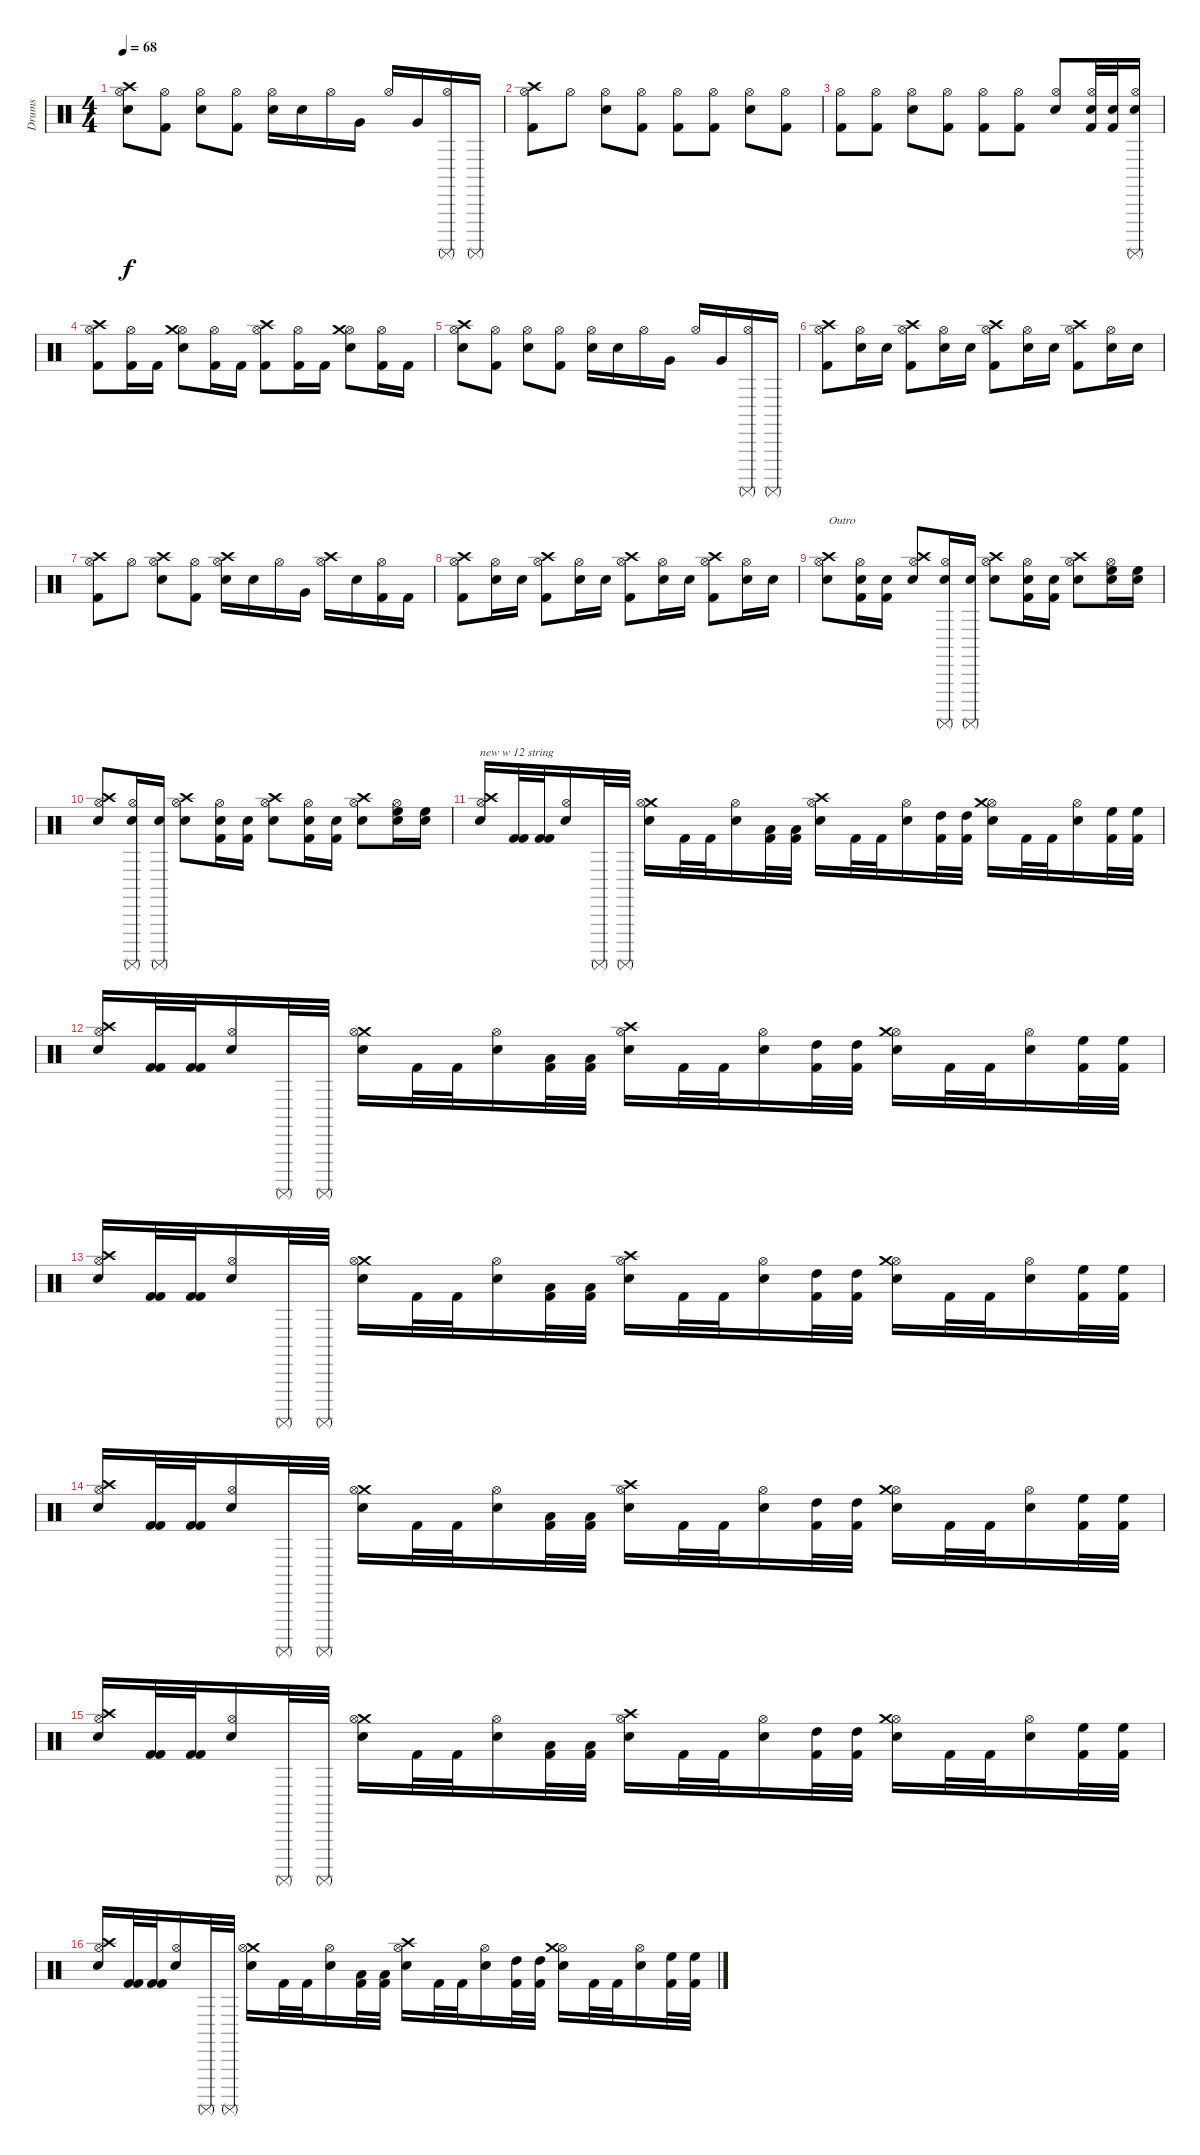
\track ("Drums" "Drums") {instrument percussion}
\staff {score}
\articulation defaults
\ts (4 4)
\tempo 68
\clef neutral
\ks c
("Snare (hit) 2" "Crash high (hit)" "Hi-Hat (open)").8{dy f} ("Kick (hit) 2" "Hi-Hat (open)").8 ("Snare (hit) 2" "Hi-Hat (open)").8 ("Kick (hit) 2" "Hi-Hat (open)").8 ("Snare (hit) 2" "Hi-Hat (open)").16 "Snare (hit) 2".16 "Hi-Hat (open)".16 "Very Low Tom (hit)".16 "Hi-Hat (open)".16 "Very Low Tom (hit)".16 ("Surdo (mute)" "Hi-Hat (open)").16 "Surdo (mute)".16 |
("Kick (hit) 2" "Hi-Hat (open)" "Crash high (hit)").8 "Hi-Hat (open)".8 ("Snare (hit) 2" "Hi-Hat (open)").8 ("Kick (hit) 2" "Hi-Hat (open)").8 ("Kick (hit) 2" "Hi-Hat (open)").8 ("Kick (hit) 2" "Hi-Hat (open)").8 ("Snare (hit) 2" "Hi-Hat (open)").8 ("Kick (hit) 2" "Hi-Hat (open)").8 |
("Kick (hit) 2" "Hi-Hat (open)").8 ("Kick (hit) 2" "Hi-Hat (open)").8 ("Snare (hit) 2" "Hi-Hat (open)").8 ("Kick (hit) 2" "Hi-Hat (open)").8 ("Kick (hit) 2" "Hi-Hat (open)").8 ("Kick (hit) 2" "Hi-Hat (open)").8 ("Snare (hit) 2" "Hi-Hat (open)").8 ("Kick (hit) 2" "Hi-Hat (open)" "Snare (hit) 2").32 ("Kick (hit) 2" "Snare (hit) 2").32 ("Surdo (mute)" "Snare (hit) 2" "Hi-Hat (open)").16 |
("Kick (hit) 2" "Crash high (hit)" "Hi-Hat (open)").8 ("Kick (hit) 2" "Hi-Hat (open)").16 "Kick (hit) 2".16 ("Snare (hit) 2" "Hi-Hat (open)" "Crash medium (hit)").8 ("Kick (hit) 2" "Hi-Hat (open)").16 "Kick (hit) 2".16 ("Kick (hit) 2" "Hi-Hat (open)" "Crash high (hit)").8 ("Kick (hit) 2" "Hi-Hat (open)").16 "Kick (hit) 2".16 ("Snare (hit) 2" "Hi-Hat (open)" "Crash medium (hit)").8 ("Kick (hit) 2" "Hi-Hat (open)").16 "Kick (hit) 2".16 |
("Snare (hit) 2" "Crash high (hit)" "Hi-Hat (open)").8 ("Kick (hit) 2" "Hi-Hat (open)").8 ("Snare (hit) 2" "Hi-Hat (open)").8 ("Kick (hit) 2" "Hi-Hat (open)").8 ("Snare (hit) 2" "Hi-Hat (open)").16 "Snare (hit) 2".16 "Hi-Hat (open)".16 "Very Low Tom (hit)".16 "Hi-Hat (open)".16 "Very Low Tom (hit)".16 ("Surdo (mute)" "Hi-Hat (open)").16 "Surdo (mute)".16 |
("Kick (hit) 2" "Crash high (hit)" "Hi-Hat (open)").8 ("Snare (hit) 2" "Hi-Hat (open)").16 "Snare (hit) 2".16 ("Kick (hit) 2" "Crash high (hit)" "Hi-Hat (open)").8 ("Snare (hit) 2" "Hi-Hat (open)").16 "Snare (hit) 2".16 ("Kick (hit) 2" "Hi-Hat (open)" "Crash high (hit)").8 ("Snare (hit) 2" "Hi-Hat (open)").16 "Snare (hit) 2".16 ("Kick (hit) 2" "Hi-Hat (open)" "Crash high (hit)").8 ("Snare (hit) 2" "Hi-Hat (open)").16 "Snare (hit) 2".16 |
("Kick (hit) 2" "Crash high (hit)" "Hi-Hat (open)").8 "Hi-Hat (open)".8 ("Snare (hit) 2" "Hi-Hat (open)" "Crash high (hit)").8 ("Kick (hit) 2" "Hi-Hat (open)").8 ("Snare (hit) 2" "Hi-Hat (open)" "Crash high (hit)").16 "Snare (hit) 2".16 "Hi-Hat (open)".16 "Very Low Tom (hit)".16 ("Hi-Hat (open)" "Crash high (hit)").16 "Snare (hit) 2".16 ("Kick (hit) 2" "Hi-Hat (open)").16 "Kick (hit) 2".16 |
("Kick (hit) 2" "Crash high (hit)" "Hi-Hat (open)").8 ("Snare (hit) 2" "Hi-Hat (open)").16 "Snare (hit) 2".16 ("Kick (hit) 2" "Crash high (hit)" "Hi-Hat (open)").8 ("Snare (hit) 2" "Hi-Hat (open)").16 "Snare (hit) 2".16 ("Kick (hit) 2" "Hi-Hat (open)" "Crash high (hit)").8 ("Snare (hit) 2" "Hi-Hat (open)").16 "Snare (hit) 2".16 ("Kick (hit) 2" "Hi-Hat (open)" "Crash high (hit)").8 ("Snare (hit) 2" "Hi-Hat (open)").16 "Snare (hit) 2".16 |
("Snare (hit) 2" "Crash high (hit)" "Hi-Hat (open)").8{txt "Outro"} ("Snare (hit) 2" "Hi-Hat (open)" "Kick (hit) 2").16 ("Snare (hit) 2" "Kick (hit) 2").16 ("Snare (hit) 2" "Crash high (hit)" "Hi-Hat (open)").8 ("Snare (hit) 2" "Hi-Hat (open)" "Surdo (mute)").16 ("Snare (hit) 2" "Surdo (mute)").16 ("Snare (hit) 2" "Hi-Hat (open)" "Crash high (hit)").8 ("Snare (hit) 2" "Hi-Hat (open)" "Kick (hit) 2").16 ("Snare (hit) 2" "Kick (hit) 2").16 ("Snare (hit) 2" "Hi-Hat (open)" "Crash high (hit)").8 ("Snare (hit) 2" "Hi-Hat (open)" "High Floor Tom (hit)").16 ("Snare (hit) 2" "High Floor Tom (hit)").16 |
("Snare (hit) 2" "Crash high (hit)" "Hi-Hat (open)").8 ("Snare (hit) 2" "Hi-Hat (open)" "Surdo (mute)").16 ("Snare (hit) 2" "Surdo (mute)").16 ("Snare (hit) 2" "Crash high (hit)" "Hi-Hat (open)").8 ("Snare (hit) 2" "Hi-Hat (open)" "Kick (hit) 2").16 ("Snare (hit) 2" "Kick (hit) 2").16 ("Snare (hit) 2" "Hi-Hat (open)" "Crash high (hit)").8 ("Snare (hit) 2" "Hi-Hat (open)" "Kick (hit) 2").16 ("Snare (hit) 2" "Kick (hit) 2").16 ("Snare (hit) 2" "Hi-Hat (open)" "Crash high (hit)").8 ("Snare (hit) 2" "Hi-Hat (open)" "High Floor Tom (hit)").16 ("Snare (hit) 2" "High Floor Tom (hit)").16 |
("Snare (hit) 2" "Crash high (hit)" "Hi-Hat (open)").16{txt "new w 12 string"} ("Kick (hit) 2" "Kick (hit) 2").32 ("Kick (hit) 2" "Kick (hit) 2").32 ("Snare (hit) 2" "Hi-Hat (open)").16 "Surdo (mute)".32 "Surdo (mute)".32 ("Snare (hit) 2" "Crash medium (hit)" "Hi-Hat (open)").16 "Kick (hit) 2".32 "Kick (hit) 2".32 ("Snare (hit) 2" "Hi-Hat (open)").16 ("Kick (hit) 2" "Low Tom (hit)").32 ("Kick (hit) 2" "Low Tom (hit)").32 ("Snare (hit) 2" "Hi-Hat (open)" "Crash high (hit)").16 "Kick (hit) 2".32 "Kick (hit) 2".32 ("Snare (hit) 2" "Hi-Hat (open)").16 ("Kick (hit) 2" "High Tom (hit)").32 ("Kick (hit) 2" "High Tom (hit)").32 ("Snare (hit) 2" "Hi-Hat (open)" "Crash medium (hit)").16 "Kick (hit) 2".32 "Kick (hit) 2".32 ("Snare (hit) 2" "Hi-Hat (open)").16 ("Kick (hit) 2" "High Floor Tom (hit)").32 ("Kick (hit) 2" "High Floor Tom (hit)").32 |
("Snare (hit) 2" "Crash high (hit)" "Hi-Hat (open)").16 ("Kick (hit) 2" "Kick (hit) 2").32 ("Kick (hit) 2" "Kick (hit) 2").32 ("Snare (hit) 2" "Hi-Hat (open)").16 "Surdo (mute)".32 "Surdo (mute)".32 ("Snare (hit) 2" "Crash medium (hit)" "Hi-Hat (open)").16 "Kick (hit) 2".32 "Kick (hit) 2".32 ("Snare (hit) 2" "Hi-Hat (open)").16 ("Kick (hit) 2" "Low Tom (hit)").32 ("Kick (hit) 2" "Low Tom (hit)").32 ("Snare (hit) 2" "Hi-Hat (open)" "Crash high (hit)").16 "Kick (hit) 2".32 "Kick (hit) 2".32 ("Snare (hit) 2" "Hi-Hat (open)").16 ("Kick (hit) 2" "High Tom (hit)").32 ("Kick (hit) 2" "High Tom (hit)").32 ("Snare (hit) 2" "Hi-Hat (open)" "Crash medium (hit)").16 "Kick (hit) 2".32 "Kick (hit) 2".32 ("Snare (hit) 2" "Hi-Hat (open)").16 ("Kick (hit) 2" "High Floor Tom (hit)").32 ("Kick (hit) 2" "High Floor Tom (hit)").32 |
("Snare (hit) 2" "Crash high (hit)" "Hi-Hat (open)").16 ("Kick (hit) 2" "Kick (hit) 2").32 ("Kick (hit) 2" "Kick (hit) 2").32 ("Snare (hit) 2" "Hi-Hat (open)").16 "Surdo (mute)".32 "Surdo (mute)".32 ("Snare (hit) 2" "Crash medium (hit)" "Hi-Hat (open)").16 "Kick (hit) 2".32 "Kick (hit) 2".32 ("Snare (hit) 2" "Hi-Hat (open)").16 ("Kick (hit) 2" "Low Tom (hit)").32 ("Kick (hit) 2" "Low Tom (hit)").32 ("Snare (hit) 2" "Hi-Hat (open)" "Crash high (hit)").16 "Kick (hit) 2".32 "Kick (hit) 2".32 ("Snare (hit) 2" "Hi-Hat (open)").16 ("Kick (hit) 2" "High Tom (hit)").32 ("Kick (hit) 2" "High Tom (hit)").32 ("Snare (hit) 2" "Hi-Hat (open)" "Crash medium (hit)").16 "Kick (hit) 2".32 "Kick (hit) 2".32 ("Snare (hit) 2" "Hi-Hat (open)").16 ("Kick (hit) 2" "High Floor Tom (hit)").32 ("Kick (hit) 2" "High Floor Tom (hit)").32 |
("Snare (hit) 2" "Crash high (hit)" "Hi-Hat (open)").16 ("Kick (hit) 2" "Kick (hit) 2").32 ("Kick (hit) 2" "Kick (hit) 2").32 ("Snare (hit) 2" "Hi-Hat (open)").16 "Surdo (mute)".32 "Surdo (mute)".32 ("Snare (hit) 2" "Crash medium (hit)" "Hi-Hat (open)").16 "Kick (hit) 2".32 "Kick (hit) 2".32 ("Snare (hit) 2" "Hi-Hat (open)").16 ("Kick (hit) 2" "Low Tom (hit)").32 ("Kick (hit) 2" "Low Tom (hit)").32 ("Snare (hit) 2" "Hi-Hat (open)" "Crash high (hit)").16 "Kick (hit) 2".32 "Kick (hit) 2".32 ("Snare (hit) 2" "Hi-Hat (open)").16 ("Kick (hit) 2" "High Tom (hit)").32 ("Kick (hit) 2" "High Tom (hit)").32 ("Snare (hit) 2" "Hi-Hat (open)" "Crash medium (hit)").16 "Kick (hit) 2".32 "Kick (hit) 2".32 ("Snare (hit) 2" "Hi-Hat (open)").16 ("Kick (hit) 2" "High Floor Tom (hit)").32 ("Kick (hit) 2" "High Floor Tom (hit)").32 |
("Snare (hit) 2" "Crash high (hit)" "Hi-Hat (open)").16 ("Kick (hit) 2" "Kick (hit) 2").32 ("Kick (hit) 2" "Kick (hit) 2").32 ("Snare (hit) 2" "Hi-Hat (open)").16 "Surdo (mute)".32 "Surdo (mute)".32 ("Snare (hit) 2" "Crash medium (hit)" "Hi-Hat (open)").16 "Kick (hit) 2".32 "Kick (hit) 2".32 ("Snare (hit) 2" "Hi-Hat (open)").16 ("Kick (hit) 2" "Low Tom (hit)").32 ("Kick (hit) 2" "Low Tom (hit)").32 ("Snare (hit) 2" "Hi-Hat (open)" "Crash high (hit)").16 "Kick (hit) 2".32 "Kick (hit) 2".32 ("Snare (hit) 2" "Hi-Hat (open)").16 ("Kick (hit) 2" "High Tom (hit)").32 ("Kick (hit) 2" "High Tom (hit)").32 ("Snare (hit) 2" "Hi-Hat (open)" "Crash medium (hit)").16 "Kick (hit) 2".32 "Kick (hit) 2".32 ("Snare (hit) 2" "Hi-Hat (open)").16 ("Kick (hit) 2" "High Floor Tom (hit)").32 ("Kick (hit) 2" "High Floor Tom (hit)").32 |
("Snare (hit) 2" "Crash high (hit)" "Hi-Hat (open)").16 ("Kick (hit) 2" "Kick (hit) 2").32 ("Kick (hit) 2" "Kick (hit) 2").32 ("Snare (hit) 2" "Hi-Hat (open)").16 "Surdo (mute)".32 "Surdo (mute)".32 ("Snare (hit) 2" "Crash medium (hit)" "Hi-Hat (open)").16 "Kick (hit) 2".32 "Kick (hit) 2".32 ("Snare (hit) 2" "Hi-Hat (open)").16 ("Kick (hit) 2" "Low Tom (hit)").32 ("Kick (hit) 2" "Low Tom (hit)").32 ("Snare (hit) 2" "Hi-Hat (open)" "Crash high (hit)").16 "Kick (hit) 2".32 "Kick (hit) 2".32 ("Snare (hit) 2" "Hi-Hat (open)").16 ("Kick (hit) 2" "High Tom (hit)").32 ("Kick (hit) 2" "High Tom (hit)").32 ("Snare (hit) 2" "Hi-Hat (open)" "Crash medium (hit)").16 "Kick (hit) 2".32 "Kick (hit) 2".32 ("Snare (hit) 2" "Hi-Hat (open)").16 ("Kick (hit) 2" "High Floor Tom (hit)").32 ("Kick (hit) 2" "High Floor Tom (hit)").32
